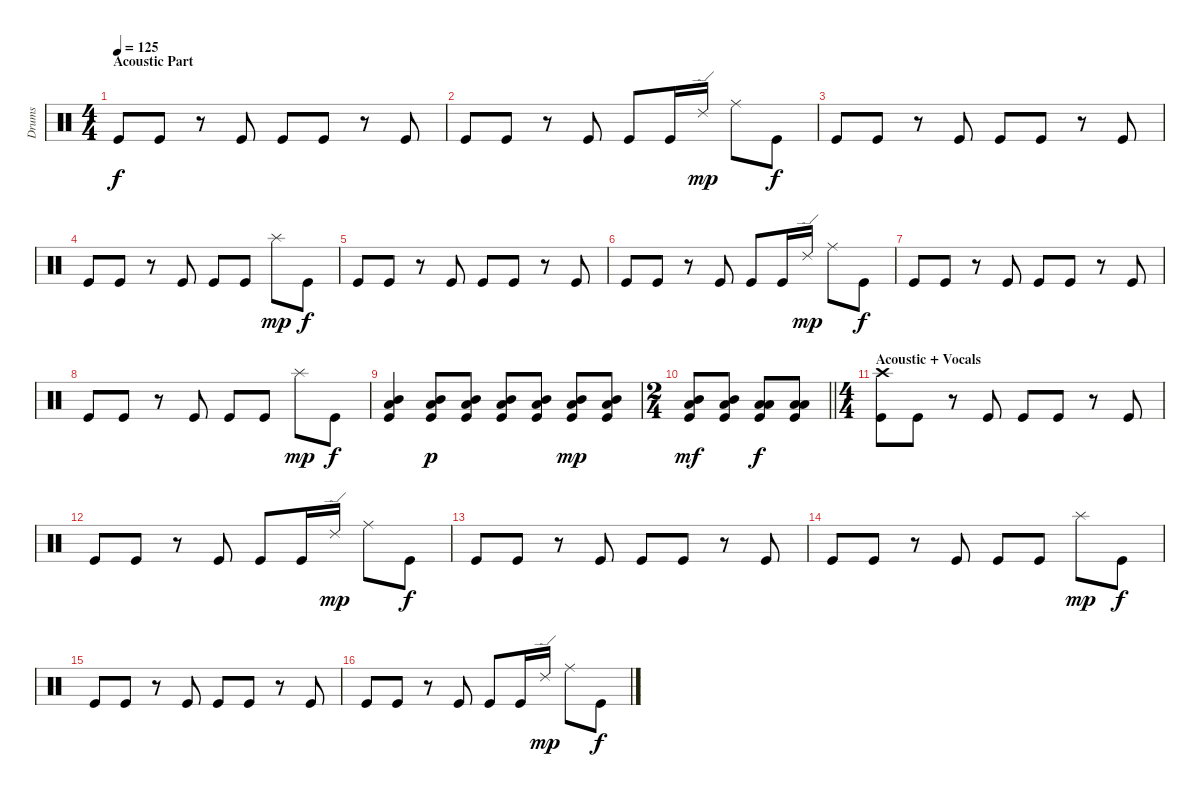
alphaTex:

\track ("Drums" "Drums") {instrument percussion}
\staff {score}
\articulation defaults
\ts (4 4)
\section ("" "Acoustic Part")
\tempo 125
\clef neutral
\ks c "Kick (hit)".8{dy f} "Kick (hit)".8
r.8 "Kick (hit)".8 "Kick (hit)".8 "Kick (hit)".8 r.8 "Kick (hit)".8 |
"Kick (hit)".8 "Kick (hit)".8 r.8 "Kick (hit)".8 "Kick (hit)".8 "Kick (hit)".16 "Ride (edge) 2".16{dy mp} "Ride (middle)".8 "Kick (hit)".8{dy f} |
"Kick (hit)".8 "Kick (hit)".8 r.8 "Kick (hit)".8 "Kick (hit)".8 "Kick (hit)".8 r.8 "Kick (hit)".8 |
"Kick (hit)".8 "Kick (hit)".8 r.8 "Kick (hit)".8 "Kick (hit)".8 "Kick (hit)".8 "Splash (hit)".8{dy mp} "Kick (hit)".8{dy f} |
"Kick (hit)".8 "Kick (hit)".8 r.8 "Kick (hit)".8 "Kick (hit)".8 "Kick (hit)".8 r.8 "Kick (hit)".8 |
"Kick (hit)".8 "Kick (hit)".8 r.8 "Kick (hit)".8 "Kick (hit)".8 "Kick (hit)".16 "Ride (edge) 2".16{dy mp} "Ride (middle)".8 "Kick (hit)".8{dy f} |
"Kick (hit)".8 "Kick (hit)".8 r.8 "Kick (hit)".8 "Kick (hit)".8 "Kick (hit)".8 r.8 "Kick (hit)".8 |
"Kick (hit)".8 "Kick (hit)".8 r.8 "Kick (hit)".8 "Kick (hit)".8 "Kick (hit)".8 "Splash (hit)".8{dy mp} "Kick (hit)".8{dy f} |
("Mid Tom (hit)" "Low Floor Tom (hit)" "Kick (hit)").4 ("Mid Tom (hit)" "Low Floor Tom (hit)" "Kick (hit)").8{dy p} ("Mid Tom (hit)" "Low Floor Tom (hit)" "Kick (hit)").8 ("Mid Tom (hit)" "Low Floor Tom (hit)" "Kick (hit)").8 ("Mid Tom (hit)" "Low Floor Tom (hit)" "Kick (hit)").8 ("Mid Tom (hit)" "Low Floor Tom (hit)" "Kick (hit)").8{dy mp} ("Mid Tom (hit)" "Low Floor Tom (hit)" "Kick (hit)").8 |
\ts (2 4)
\barLineRight lightlight
("Mid Tom (hit)" "Low Floor Tom (hit)" "Kick (hit)").8{dy mf} ("Mid Tom (hit)" "Low Floor Tom (hit)" "Kick (hit)").8 ("Low Tom (hit)" "Low Floor Tom (hit)" "Kick (hit)").8{dy f} ("Low Tom (hit)" "Low Floor Tom (hit)" "Kick (hit)").8 |
\ts (4 4)
\section ("" "Acoustic + Vocals")
("Crash high (hit)" "Kick (hit)").8 "Kick (hit)".8 r.8 "Kick (hit)".8 "Kick (hit)".8 "Kick (hit)".8 r.8 "Kick (hit)".8 |
"Kick (hit)".8 "Kick (hit)".8 r.8 "Kick (hit)".8 "Kick (hit)".8 "Kick (hit)".16 "Ride (edge) 2".16{dy mp} "Ride (middle)".8 "Kick (hit)".8{dy f} |
"Kick (hit)".8 "Kick (hit)".8 r.8 "Kick (hit)".8 "Kick (hit)".8 "Kick (hit)".8 r.8 "Kick (hit)".8 |
"Kick (hit)".8 "Kick (hit)".8 r.8 "Kick (hit)".8 "Kick (hit)".8 "Kick (hit)".8 "Splash (hit)".8{dy mp} "Kick (hit)".8{dy f} |
"Kick (hit)".8 "Kick (hit)".8 r.8 "Kick (hit)".8 "Kick (hit)".8 "Kick (hit)".8 r.8 "Kick (hit)".8 |
"Kick (hit)".8 "Kick (hit)".8 r.8 "Kick (hit)".8 "Kick (hit)".8 "Kick (hit)".16 "Ride (edge) 2".16{dy mp} "Ride (middle)".8 "Kick (hit)".8{dy f}
